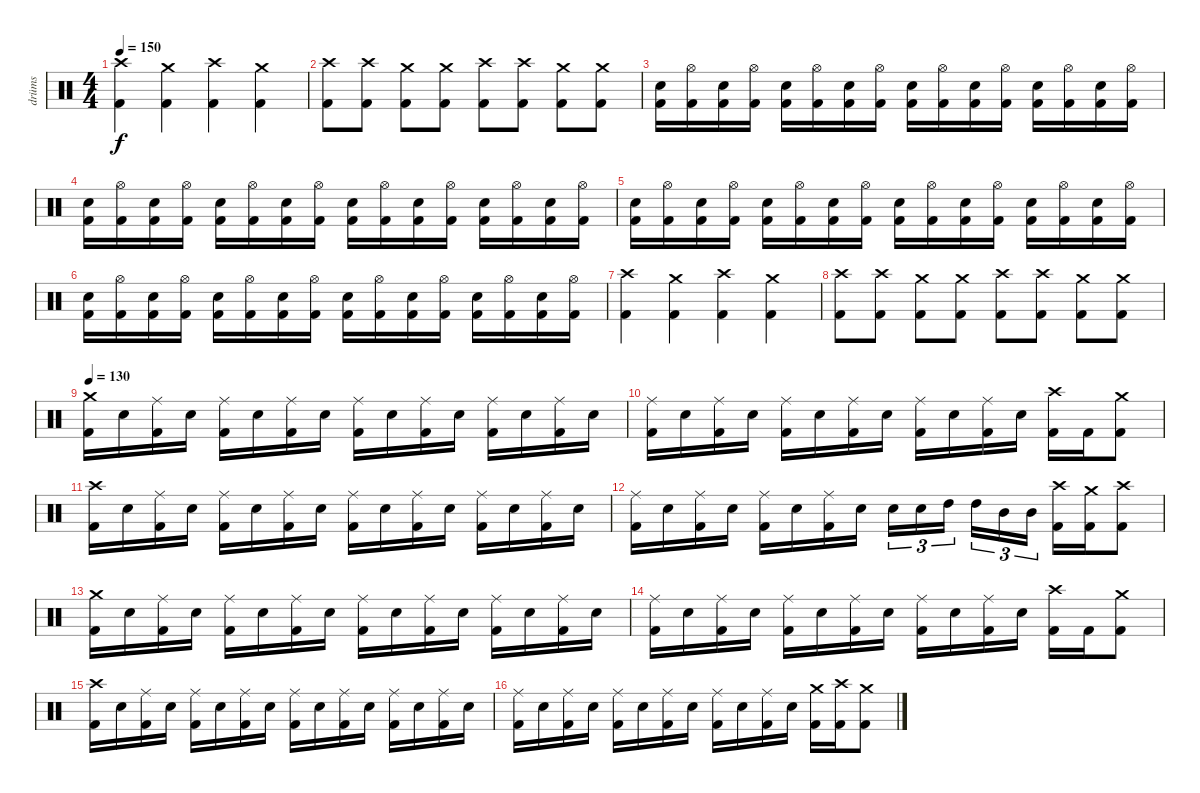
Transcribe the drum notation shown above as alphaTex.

\track ("drüms" "drüms") {instrument percussion}
\staff {score}
\articulation defaults
\ts (4 4)
\tempo 150
\clef neutral
\ks c
("Crash high (hit)" "Kick (hit) 2").4{dy f} ("Crash medium (hit)" "Kick (hit) 2").4 ("Crash high (hit)" "Kick (hit) 2").4 ("Crash medium (hit)" "Kick (hit) 2").4 |
("Crash high (hit)" "Kick (hit) 2").8 ("Crash high (hit)" "Kick (hit) 2").8 ("Crash medium (hit)" "Kick (hit) 2").8 ("Crash medium (hit)" "Kick (hit) 2").8 ("Crash high (hit)" "Kick (hit) 2").8 ("Crash high (hit)" "Kick (hit) 2").8 ("Crash medium (hit)" "Kick (hit) 2").8 ("Crash medium (hit)" "Kick (hit) 2").8 |
("Electric Snare (hit)" "Kick (hit) 2").16 ("Hi-Hat (open)" "Kick (hit) 2").16 ("Electric Snare (hit)" "Kick (hit) 2").16 ("Hi-Hat (open)" "Kick (hit) 2").16 ("Electric Snare (hit)" "Kick (hit) 2").16 ("Hi-Hat (open)" "Kick (hit) 2").16 ("Electric Snare (hit)" "Kick (hit) 2").16 ("Hi-Hat (open)" "Kick (hit) 2").16 ("Electric Snare (hit)" "Kick (hit) 2").16 ("Hi-Hat (open)" "Kick (hit) 2").16 ("Electric Snare (hit)" "Kick (hit) 2").16 ("Hi-Hat (open)" "Kick (hit) 2").16 ("Electric Snare (hit)" "Kick (hit) 2").16 ("Hi-Hat (open)" "Kick (hit) 2").16 ("Electric Snare (hit)" "Kick (hit) 2").16 ("Hi-Hat (open)" "Kick (hit) 2").16 |
("Electric Snare (hit)" "Kick (hit) 2").16 ("Hi-Hat (open)" "Kick (hit) 2").16 ("Electric Snare (hit)" "Kick (hit) 2").16 ("Hi-Hat (open)" "Kick (hit) 2").16 ("Electric Snare (hit)" "Kick (hit) 2").16 ("Hi-Hat (open)" "Kick (hit) 2").16 ("Electric Snare (hit)" "Kick (hit) 2").16 ("Hi-Hat (open)" "Kick (hit) 2").16 ("Electric Snare (hit)" "Kick (hit) 2").16 ("Hi-Hat (open)" "Kick (hit) 2").16 ("Electric Snare (hit)" "Kick (hit) 2").16 ("Hi-Hat (open)" "Kick (hit) 2").16 ("Electric Snare (hit)" "Kick (hit) 2").16 ("Hi-Hat (open)" "Kick (hit) 2").16 ("Electric Snare (hit)" "Kick (hit) 2").16 ("Hi-Hat (open)" "Kick (hit) 2").16 |
("Electric Snare (hit)" "Kick (hit) 2").16 ("Hi-Hat (open)" "Kick (hit) 2").16 ("Electric Snare (hit)" "Kick (hit) 2").16 ("Hi-Hat (open)" "Kick (hit) 2").16 ("Electric Snare (hit)" "Kick (hit) 2").16 ("Hi-Hat (open)" "Kick (hit) 2").16 ("Electric Snare (hit)" "Kick (hit) 2").16 ("Hi-Hat (open)" "Kick (hit) 2").16 ("Electric Snare (hit)" "Kick (hit) 2").16 ("Hi-Hat (open)" "Kick (hit) 2").16 ("Electric Snare (hit)" "Kick (hit) 2").16 ("Hi-Hat (open)" "Kick (hit) 2").16 ("Electric Snare (hit)" "Kick (hit) 2").16 ("Hi-Hat (open)" "Kick (hit) 2").16 ("Electric Snare (hit)" "Kick (hit) 2").16 ("Hi-Hat (open)" "Kick (hit) 2").16 |
("Electric Snare (hit)" "Kick (hit) 2").16 ("Hi-Hat (open)" "Kick (hit) 2").16 ("Electric Snare (hit)" "Kick (hit) 2").16 ("Hi-Hat (open)" "Kick (hit) 2").16 ("Electric Snare (hit)" "Kick (hit) 2").16 ("Hi-Hat (open)" "Kick (hit) 2").16 ("Electric Snare (hit)" "Kick (hit) 2").16 ("Hi-Hat (open)" "Kick (hit) 2").16 ("Electric Snare (hit)" "Kick (hit) 2").16 ("Hi-Hat (open)" "Kick (hit) 2").16 ("Electric Snare (hit)" "Kick (hit) 2").16 ("Hi-Hat (open)" "Kick (hit) 2").16 ("Electric Snare (hit)" "Kick (hit) 2").16 ("Hi-Hat (open)" "Kick (hit) 2").16 ("Electric Snare (hit)" "Kick (hit) 2").16 ("Hi-Hat (open)" "Kick (hit) 2").16 |
("Crash high (hit)" "Kick (hit) 2").4 ("Crash medium (hit)" "Kick (hit) 2").4 ("Crash high (hit)" "Kick (hit) 2").4 ("Crash medium (hit)" "Kick (hit) 2").4 |
("Crash high (hit)" "Kick (hit) 2").8 ("Crash high (hit)" "Kick (hit) 2").8 ("Crash medium (hit)" "Kick (hit) 2").8 ("Crash medium (hit)" "Kick (hit) 2").8 ("Crash high (hit)" "Kick (hit) 2").8 ("Crash high (hit)" "Kick (hit) 2").8 ("Crash medium (hit)" "Kick (hit) 2").8 ("Crash medium (hit)" "Kick (hit) 2").8 |
\tempo 130
("Kick (hit) 2" "Crash medium (hit)").16 "Electric Snare (hit)".16 ("Kick (hit) 2" "Ride (middle)").16 "Electric Snare (hit)".16 ("Kick (hit) 2" "Ride (middle)").16 "Electric Snare (hit)".16 ("Kick (hit) 2" "Ride (middle)").16 "Electric Snare (hit)".16 ("Kick (hit) 2" "Ride (middle)").16 "Electric Snare (hit)".16 ("Kick (hit) 2" "Ride (middle)").16 "Electric Snare (hit)".16 ("Kick (hit) 2" "Ride (middle)").16 "Electric Snare (hit)".16 ("Kick (hit) 2" "Ride (middle)").16 "Electric Snare (hit)".16 |
("Kick (hit) 2" "Ride (middle)").16 "Electric Snare (hit)".16 ("Kick (hit) 2" "Ride (middle)").16 "Electric Snare (hit)".16 ("Kick (hit) 2" "Ride (middle)").16 "Electric Snare (hit)".16 ("Kick (hit) 2" "Ride (middle)").16 "Electric Snare (hit)".16 ("Kick (hit) 2" "Ride (middle)").16 "Electric Snare (hit)".16 ("Kick (hit) 2" "Ride (middle)").16 "Electric Snare (hit)".16 ("Kick (hit) 2" "Crash high (hit)").16 "Kick (hit) 2".16 ("Kick (hit) 2" "Crash medium (hit)").8 |
("Kick (hit) 2" "Crash high (hit)").16 "Electric Snare (hit)".16 ("Kick (hit) 2" "Ride (middle)").16 "Electric Snare (hit)".16 ("Kick (hit) 2" "Ride (middle)").16 "Electric Snare (hit)".16 ("Kick (hit) 2" "Ride (middle)").16 "Electric Snare (hit)".16 ("Kick (hit) 2" "Ride (middle)").16 "Electric Snare (hit)".16 ("Kick (hit) 2" "Ride (middle)").16 "Electric Snare (hit)".16 ("Kick (hit) 2" "Ride (middle)").16 "Electric Snare (hit)".16 ("Kick (hit) 2" "Ride (middle)").16 "Electric Snare (hit)".16 |
("Kick (hit) 2" "Ride (middle)").16 "Electric Snare (hit)".16 ("Kick (hit) 2" "Ride (middle)").16 "Electric Snare (hit)".16 ("Kick (hit) 2" "Ride (middle)").16 "Electric Snare (hit)".16 ("Kick (hit) 2" "Ride (middle)").16 "Electric Snare (hit)".16 "Electric Snare (hit)".16{tu (3 2)} "Electric Snare (hit)".16{tu (3 2)} "High Tom (hit)".16{tu (3 2)} "High Tom (hit)".16{tu (3 2)} "Mid Tom (hit)".16{tu (3 2)} "Mid Tom (hit)".16{tu (3 2)} ("Kick (hit) 2" "Crash high (hit)").16 ("Kick (hit) 2" "Crash medium (hit)").16 ("Kick (hit) 2" "Crash high (hit)").8 |
("Kick (hit) 2" "Crash medium (hit)").16 "Electric Snare (hit)".16 ("Kick (hit) 2" "Ride (middle)").16 "Electric Snare (hit)".16 ("Kick (hit) 2" "Ride (middle)").16 "Electric Snare (hit)".16 ("Kick (hit) 2" "Ride (middle)").16 "Electric Snare (hit)".16 ("Kick (hit) 2" "Ride (middle)").16 "Electric Snare (hit)".16 ("Kick (hit) 2" "Ride (middle)").16 "Electric Snare (hit)".16 ("Kick (hit) 2" "Ride (middle)").16 "Electric Snare (hit)".16 ("Kick (hit) 2" "Ride (middle)").16 "Electric Snare (hit)".16 |
("Kick (hit) 2" "Ride (middle)").16 "Electric Snare (hit)".16 ("Kick (hit) 2" "Ride (middle)").16 "Electric Snare (hit)".16 ("Kick (hit) 2" "Ride (middle)").16 "Electric Snare (hit)".16 ("Kick (hit) 2" "Ride (middle)").16 "Electric Snare (hit)".16 ("Kick (hit) 2" "Ride (middle)").16 "Electric Snare (hit)".16 ("Kick (hit) 2" "Ride (middle)").16 "Electric Snare (hit)".16 ("Kick (hit) 2" "Crash high (hit)").16 "Kick (hit) 2".16 ("Kick (hit) 2" "Crash medium (hit)").8 |
("Kick (hit) 2" "Crash high (hit)").16 "Electric Snare (hit)".16 ("Kick (hit) 2" "Ride (middle)").16 "Electric Snare (hit)".16 ("Kick (hit) 2" "Ride (middle)").16 "Electric Snare (hit)".16 ("Kick (hit) 2" "Ride (middle)").16 "Electric Snare (hit)".16 ("Kick (hit) 2" "Ride (middle)").16 "Electric Snare (hit)".16 ("Kick (hit) 2" "Ride (middle)").16 "Electric Snare (hit)".16 ("Kick (hit) 2" "Ride (middle)").16 "Electric Snare (hit)".16 ("Kick (hit) 2" "Ride (middle)").16 "Electric Snare (hit)".16 |
("Kick (hit) 2" "Ride (middle)").16 "Electric Snare (hit)".16 ("Kick (hit) 2" "Ride (middle)").16 "Electric Snare (hit)".16 ("Kick (hit) 2" "Ride (middle)").16 "Electric Snare (hit)".16 ("Kick (hit) 2" "Ride (middle)").16 "Electric Snare (hit)".16 ("Kick (hit) 2" "Ride (middle)").16 "Electric Snare (hit)".16 ("Kick (hit) 2" "Ride (middle)").16 "Electric Snare (hit)".16 ("Kick (hit) 2" "Crash medium (hit)").16 ("Kick (hit) 2" "Crash high (hit)").16 ("Kick (hit) 2" "Crash medium (hit)").8
